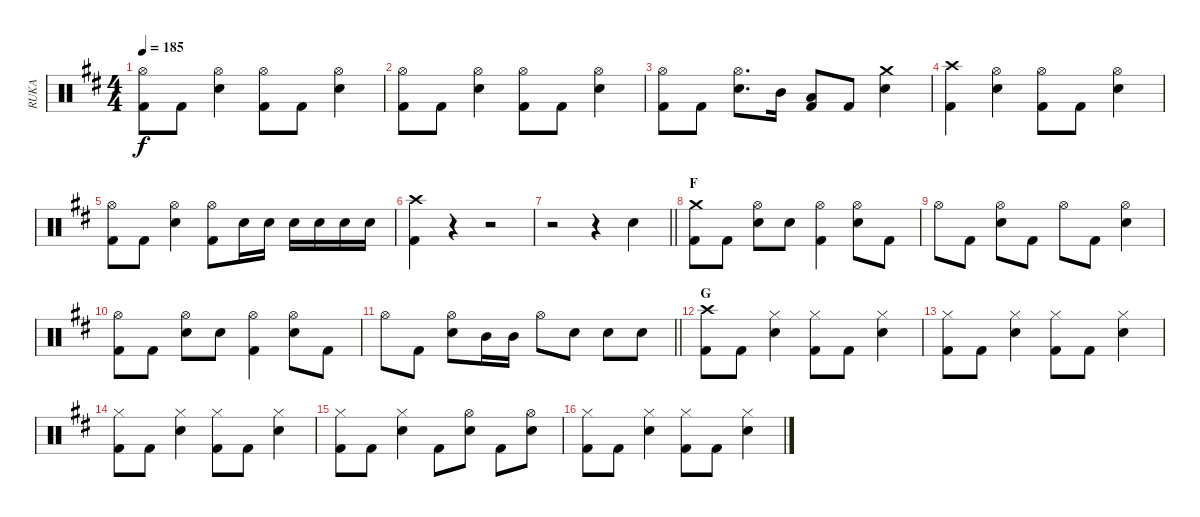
\track ("RUKA" "RUKA") {instrument percussion}
\staff {score}
\articulation defaults
\ts (4 4)
\tempo 185
\clef neutral
\ks d
("Hi-Hat (open)" "Kick (hit) 2").8{dy f} "Kick (hit) 2".8 ("Hi-Hat (open)" "Snare (hit) 2").4 ("Hi-Hat (open)" "Kick (hit) 2").8 "Kick (hit) 2".8 ("Hi-Hat (open)" "Snare (hit) 2").4 |
("Hi-Hat (open)" "Kick (hit) 2").8 "Kick (hit) 2".8 ("Hi-Hat (open)" "Snare (hit) 2").4 ("Hi-Hat (open)" "Kick (hit) 2").8 "Kick (hit) 2".8 ("Hi-Hat (open)" "Snare (hit) 2").4 |
("Hi-Hat (open)" "Kick (hit) 2").8 "Kick (hit) 2".8 ("Hi-Hat (open)" "Snare (hit) 2").8{d} "Mid Tom (hit)".16 ("Low Tom (hit)" "Kick (hit) 2").8 "Kick (hit) 2".8 ("Crash medium (hit)" "Snare (hit) 2").4 |
("Crash high (hit)" "Kick (hit) 2").4 ("Hi-Hat (open)" "Snare (hit) 2").4 ("Hi-Hat (open)" "Kick (hit) 2").8 "Kick (hit) 2".8 ("Hi-Hat (open)" "Snare (hit) 2").4 |
("Hi-Hat (open)" "Kick (hit) 2").8 "Kick (hit) 2".8 ("Hi-Hat (open)" "Snare (hit) 2").4 ("Hi-Hat (open)" "Kick (hit) 2").8 "Snare (hit) 2".16 "Snare (hit) 2".16 "Snare (hit) 2".16 "Snare (hit) 2".16 "Snare (hit) 2".16 "Snare (hit) 2".16 |
("Crash high (hit)" "Kick (hit) 2").4 r.4 r.2 |
\barLineRight lightlight
r.2 r.4 "Snare (hit) 2".4 |
\section ("" "F")
("Crash medium (hit)" "Kick (hit) 2").8 "Kick (hit) 2".8 ("Hi-Hat (open)" "Snare (hit) 2").8 "Snare (hit) 2".8 ("Hi-Hat (open)" "Kick (hit) 2").4 ("Hi-Hat (open)" "Snare (hit) 2").8 "Kick (hit) 2".8 |
"Hi-Hat (open)".8 "Kick (hit) 2".8 ("Hi-Hat (open)" "Snare (hit) 2").8 "Kick (hit) 2".8 "Hi-Hat (open)".8 "Kick (hit) 2".8 ("Hi-Hat (open)" "Snare (hit) 2").4 |
("Hi-Hat (open)" "Kick (hit) 2").8 "Kick (hit) 2".8 ("Hi-Hat (open)" "Snare (hit) 2").8 "Snare (hit) 2".8 ("Hi-Hat (open)" "Kick (hit) 2").4 ("Hi-Hat (open)" "Snare (hit) 2").8 "Kick (hit) 2".8 |
\barLineRight lightlight "Hi-Hat (open)".8 "Kick (hit) 2".8
("Hi-Hat (open)" "Snare (hit) 2").8 "Mid Tom (hit)".16 "Mid Tom (hit)".16 "Hi-Hat (open)".8 "Snare (hit) 2".8 "Snare (hit) 2".8 "Snare (hit) 2".8 |
\section ("" "G")
("Crash high (hit)" "Kick (hit) 2").8 "Kick (hit) 2".8 ("Hi-Hat (closed)" "Snare (hit) 2").4 ("Hi-Hat (closed)" "Kick (hit) 2").8 "Kick (hit) 2".8 ("Hi-Hat (closed)" "Snare (hit) 2").4 |
("Hi-Hat (closed)" "Kick (hit) 2").8 "Kick (hit) 2".8 ("Hi-Hat (closed)" "Snare (hit) 2").4 ("Hi-Hat (closed)" "Kick (hit) 2").8 "Kick (hit) 2".8 ("Hi-Hat (closed)" "Snare (hit) 2").4 |
("Hi-Hat (closed)" "Kick (hit) 2").8 "Kick (hit) 2".8 ("Hi-Hat (closed)" "Snare (hit) 2").4 ("Hi-Hat (closed)" "Kick (hit) 2").8 "Kick (hit) 2".8 ("Hi-Hat (closed)" "Snare (hit) 2").4 |
("Hi-Hat (closed)" "Kick (hit) 2").8 "Kick (hit) 2".8 ("Hi-Hat (closed)" "Snare (hit) 2").4 "Kick (hit) 2".8 ("Hi-Hat (open)" "Snare (hit) 2").8 "Kick (hit) 2".8 ("Hi-Hat (open)" "Snare (hit) 2").8 |
("Hi-Hat (closed)" "Kick (hit) 2").8 "Kick (hit) 2".8 ("Hi-Hat (closed)" "Snare (hit) 2").4 ("Hi-Hat (closed)" "Kick (hit) 2").8 "Kick (hit) 2".8 ("Hi-Hat (closed)" "Snare (hit) 2").4
